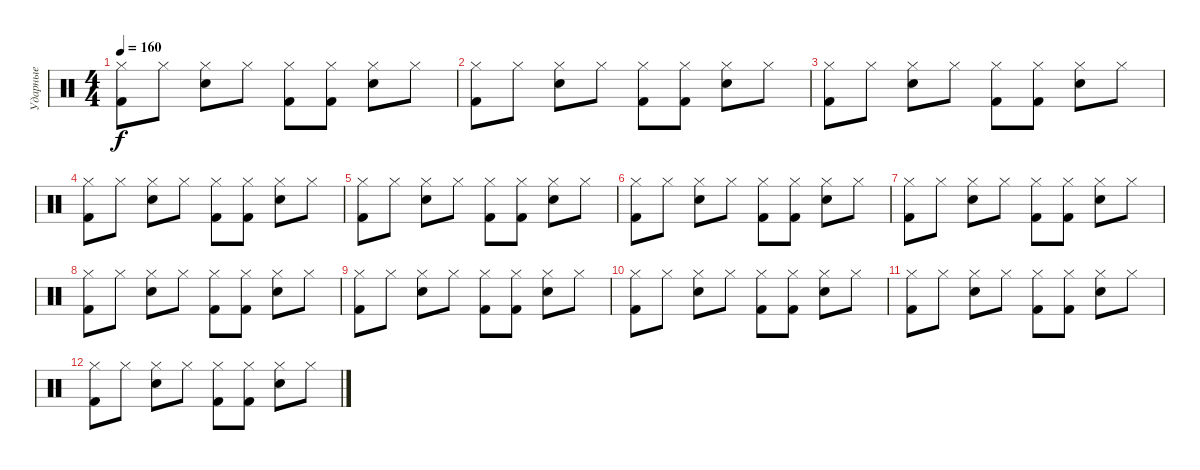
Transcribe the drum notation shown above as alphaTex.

\track ("Ударные" "Ударные") {instrument percussion}
\staff {score}
\articulation defaults
\ts (4 4)
\tempo 160
\clef neutral
\ks c
("Kick (hit) 2" "Hi-Hat (closed)").8{dy f} "Hi-Hat (closed)".8 ("Electric Snare (hit)" "Hi-Hat (closed)").8 "Hi-Hat (closed)".8 ("Kick (hit) 2" "Hi-Hat (closed)").8 ("Kick (hit) 2" "Hi-Hat (closed)").8 ("Electric Snare (hit)" "Hi-Hat (closed)").8 "Hi-Hat (closed)".8 |
("Kick (hit) 2" "Hi-Hat (closed)").8 "Hi-Hat (closed)".8 ("Electric Snare (hit)" "Hi-Hat (closed)").8 "Hi-Hat (closed)".8 ("Kick (hit) 2" "Hi-Hat (closed)").8 ("Kick (hit) 2" "Hi-Hat (closed)").8 ("Electric Snare (hit)" "Hi-Hat (closed)").8 "Hi-Hat (closed)".8 |
("Kick (hit) 2" "Hi-Hat (closed)").8 "Hi-Hat (closed)".8 ("Electric Snare (hit)" "Hi-Hat (closed)").8 "Hi-Hat (closed)".8 ("Kick (hit) 2" "Hi-Hat (closed)").8 ("Kick (hit) 2" "Hi-Hat (closed)").8 ("Electric Snare (hit)" "Hi-Hat (closed)").8 "Hi-Hat (closed)".8 |
("Kick (hit) 2" "Hi-Hat (closed)").8 "Hi-Hat (closed)".8 ("Electric Snare (hit)" "Hi-Hat (closed)").8 "Hi-Hat (closed)".8 ("Kick (hit) 2" "Hi-Hat (closed)").8 ("Kick (hit) 2" "Hi-Hat (closed)").8 ("Electric Snare (hit)" "Hi-Hat (closed)").8 "Hi-Hat (closed)".8 |
("Kick (hit) 2" "Hi-Hat (closed)").8 "Hi-Hat (closed)".8 ("Electric Snare (hit)" "Hi-Hat (closed)").8 "Hi-Hat (closed)".8 ("Kick (hit) 2" "Hi-Hat (closed)").8 ("Kick (hit) 2" "Hi-Hat (closed)").8 ("Electric Snare (hit)" "Hi-Hat (closed)").8 "Hi-Hat (closed)".8 |
("Kick (hit) 2" "Hi-Hat (closed)").8 "Hi-Hat (closed)".8 ("Electric Snare (hit)" "Hi-Hat (closed)").8 "Hi-Hat (closed)".8 ("Kick (hit) 2" "Hi-Hat (closed)").8 ("Kick (hit) 2" "Hi-Hat (closed)").8 ("Electric Snare (hit)" "Hi-Hat (closed)").8 "Hi-Hat (closed)".8 |
("Kick (hit) 2" "Hi-Hat (closed)").8 "Hi-Hat (closed)".8 ("Electric Snare (hit)" "Hi-Hat (closed)").8 "Hi-Hat (closed)".8 ("Kick (hit) 2" "Hi-Hat (closed)").8 ("Kick (hit) 2" "Hi-Hat (closed)").8 ("Electric Snare (hit)" "Hi-Hat (closed)").8 "Hi-Hat (closed)".8 |
("Kick (hit) 2" "Hi-Hat (closed)").8 "Hi-Hat (closed)".8 ("Electric Snare (hit)" "Hi-Hat (closed)").8 "Hi-Hat (closed)".8 ("Kick (hit) 2" "Hi-Hat (closed)").8 ("Kick (hit) 2" "Hi-Hat (closed)").8 ("Electric Snare (hit)" "Hi-Hat (closed)").8 "Hi-Hat (closed)".8 |
("Kick (hit) 2" "Hi-Hat (closed)").8 "Hi-Hat (closed)".8 ("Electric Snare (hit)" "Hi-Hat (closed)").8 "Hi-Hat (closed)".8 ("Kick (hit) 2" "Hi-Hat (closed)").8 ("Kick (hit) 2" "Hi-Hat (closed)").8 ("Electric Snare (hit)" "Hi-Hat (closed)").8 "Hi-Hat (closed)".8 |
("Kick (hit) 2" "Hi-Hat (closed)").8 "Hi-Hat (closed)".8 ("Electric Snare (hit)" "Hi-Hat (closed)").8 "Hi-Hat (closed)".8 ("Kick (hit) 2" "Hi-Hat (closed)").8 ("Kick (hit) 2" "Hi-Hat (closed)").8 ("Electric Snare (hit)" "Hi-Hat (closed)").8 "Hi-Hat (closed)".8 |
("Kick (hit) 2" "Hi-Hat (closed)").8 "Hi-Hat (closed)".8 ("Electric Snare (hit)" "Hi-Hat (closed)").8 "Hi-Hat (closed)".8 ("Kick (hit) 2" "Hi-Hat (closed)").8 ("Kick (hit) 2" "Hi-Hat (closed)").8 ("Electric Snare (hit)" "Hi-Hat (closed)").8 "Hi-Hat (closed)".8 |
("Kick (hit) 2" "Hi-Hat (closed)").8 "Hi-Hat (closed)".8 ("Electric Snare (hit)" "Hi-Hat (closed)").8 "Hi-Hat (closed)".8 ("Kick (hit) 2" "Hi-Hat (closed)").8 ("Kick (hit) 2" "Hi-Hat (closed)").8 ("Electric Snare (hit)" "Hi-Hat (closed)").8 "Hi-Hat (closed)".8
